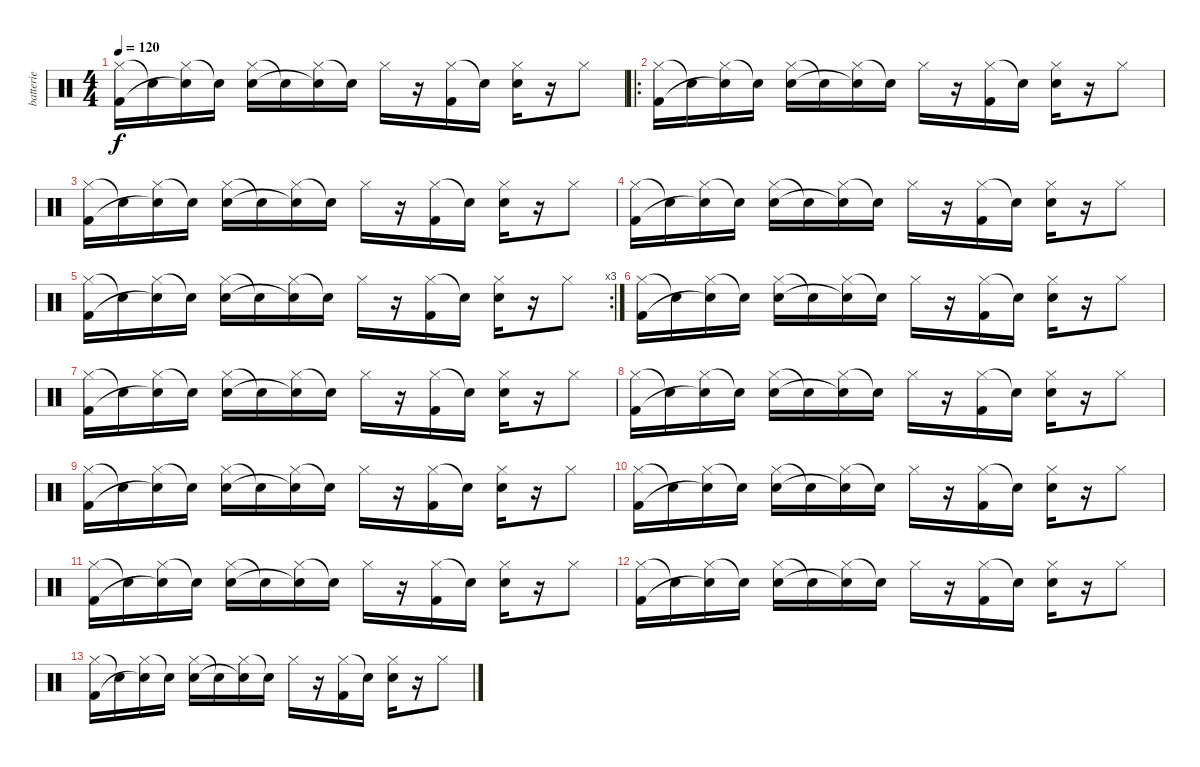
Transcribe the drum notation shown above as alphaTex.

\track ("batterie" "batterie") {instrument percussion}
\staff {score}
\articulation defaults
\ts (4 4)
\tempo 120
\clef neutral
\ks c
("Hi-Hat (closed)" "Kick (hit) 2").16{dy f} "Snare (hit)"{t}.16 ("Hi-Hat (closed)" "Snare (hit)"{t}).16 "Snare (hit)"{t}.16 ("Hi-Hat (closed)" "Snare (hit) 2").16 "Snare (hit)"{t}.16 ("Hi-Hat (closed)" "Snare (hit)"{t}).16 "Snare (hit)"{t}.16 "Hi-Hat (closed)".16 r.16 ("Hi-Hat (closed)" "Kick (hit) 2").16 "Snare (hit)"{t}.16 ("Hi-Hat (closed)" "Snare (hit) 2").16 r.16 "Hi-Hat (closed)".8 |
\ro
("Hi-Hat (closed)" "Kick (hit) 2").16 "Snare (hit)"{t}.16 ("Hi-Hat (closed)" "Snare (hit)"{t}).16 "Snare (hit)"{t}.16 ("Hi-Hat (closed)" "Snare (hit) 2").16 "Snare (hit)"{t}.16 ("Hi-Hat (closed)" "Snare (hit)"{t}).16 "Snare (hit)"{t}.16 "Hi-Hat (closed)".16 r.16 ("Hi-Hat (closed)" "Kick (hit) 2").16 "Snare (hit)"{t}.16 ("Hi-Hat (closed)" "Snare (hit) 2").16 r.16 "Hi-Hat (closed)".8 |
("Hi-Hat (closed)" "Kick (hit) 2").16 "Snare (hit)"{t}.16 ("Hi-Hat (closed)" "Snare (hit)"{t}).16 "Snare (hit)"{t}.16 ("Hi-Hat (closed)" "Snare (hit) 2").16 "Snare (hit)"{t}.16 ("Hi-Hat (closed)" "Snare (hit)"{t}).16 "Snare (hit)"{t}.16 "Hi-Hat (closed)".16 r.16 ("Hi-Hat (closed)" "Kick (hit) 2").16 "Snare (hit)"{t}.16 ("Hi-Hat (closed)" "Snare (hit) 2").16 r.16 "Hi-Hat (closed)".8 |
("Hi-Hat (closed)" "Kick (hit) 2").16 "Snare (hit)"{t}.16 ("Hi-Hat (closed)" "Snare (hit)"{t}).16 "Snare (hit)"{t}.16 ("Hi-Hat (closed)" "Snare (hit) 2").16 "Snare (hit)"{t}.16 ("Hi-Hat (closed)" "Snare (hit)"{t}).16 "Snare (hit)"{t}.16 "Hi-Hat (closed)".16 r.16 ("Hi-Hat (closed)" "Kick (hit) 2").16 "Snare (hit)"{t}.16 ("Hi-Hat (closed)" "Snare (hit) 2").16 r.16 "Hi-Hat (closed)".8 |
\rc 3
("Hi-Hat (closed)" "Kick (hit) 2").16 "Snare (hit)"{t}.16 ("Hi-Hat (closed)" "Snare (hit)"{t}).16 "Snare (hit)"{t}.16 ("Hi-Hat (closed)" "Snare (hit) 2").16 "Snare (hit)"{t}.16 ("Hi-Hat (closed)" "Snare (hit)"{t}).16 "Snare (hit)"{t}.16 "Hi-Hat (closed)".16 r.16 ("Hi-Hat (closed)" "Kick (hit) 2").16 "Snare (hit)"{t}.16 ("Hi-Hat (closed)" "Snare (hit) 2").16 r.16 "Hi-Hat (closed)".8 |
("Hi-Hat (closed)" "Kick (hit) 2").16 "Snare (hit)"{t}.16 ("Hi-Hat (closed)" "Snare (hit)"{t}).16 "Snare (hit)"{t}.16 ("Hi-Hat (closed)" "Snare (hit) 2").16 "Snare (hit)"{t}.16 ("Hi-Hat (closed)" "Snare (hit)"{t}).16 "Snare (hit)"{t}.16 "Hi-Hat (closed)".16 r.16 ("Hi-Hat (closed)" "Kick (hit) 2").16 "Snare (hit)"{t}.16 ("Hi-Hat (closed)" "Snare (hit) 2").16 r.16 "Hi-Hat (closed)".8 |
("Hi-Hat (closed)" "Kick (hit) 2").16 "Snare (hit)"{t}.16 ("Hi-Hat (closed)" "Snare (hit)"{t}).16 "Snare (hit)"{t}.16 ("Hi-Hat (closed)" "Snare (hit) 2").16 "Snare (hit)"{t}.16 ("Hi-Hat (closed)" "Snare (hit)"{t}).16 "Snare (hit)"{t}.16 "Hi-Hat (closed)".16 r.16 ("Hi-Hat (closed)" "Kick (hit) 2").16 "Snare (hit)"{t}.16 ("Hi-Hat (closed)" "Snare (hit) 2").16 r.16 "Hi-Hat (closed)".8 |
("Hi-Hat (closed)" "Kick (hit) 2").16 "Snare (hit)"{t}.16 ("Hi-Hat (closed)" "Snare (hit)"{t}).16 "Snare (hit)"{t}.16 ("Hi-Hat (closed)" "Snare (hit) 2").16 "Snare (hit)"{t}.16 ("Hi-Hat (closed)" "Snare (hit)"{t}).16 "Snare (hit)"{t}.16 "Hi-Hat (closed)".16 r.16 ("Hi-Hat (closed)" "Kick (hit) 2").16 "Snare (hit)"{t}.16 ("Hi-Hat (closed)" "Snare (hit) 2").16 r.16 "Hi-Hat (closed)".8 |
("Hi-Hat (closed)" "Kick (hit) 2").16 "Snare (hit)"{t}.16 ("Hi-Hat (closed)" "Snare (hit)"{t}).16 "Snare (hit)"{t}.16 ("Hi-Hat (closed)" "Snare (hit) 2").16 "Snare (hit)"{t}.16 ("Hi-Hat (closed)" "Snare (hit)"{t}).16 "Snare (hit)"{t}.16 "Hi-Hat (closed)".16 r.16 ("Hi-Hat (closed)" "Kick (hit) 2").16 "Snare (hit)"{t}.16 ("Hi-Hat (closed)" "Snare (hit) 2").16 r.16 "Hi-Hat (closed)".8 |
("Hi-Hat (closed)" "Kick (hit) 2").16 "Snare (hit)"{t}.16 ("Hi-Hat (closed)" "Snare (hit)"{t}).16 "Snare (hit)"{t}.16 ("Hi-Hat (closed)" "Snare (hit) 2").16 "Snare (hit)"{t}.16 ("Hi-Hat (closed)" "Snare (hit)"{t}).16 "Snare (hit)"{t}.16 "Hi-Hat (closed)".16 r.16 ("Hi-Hat (closed)" "Kick (hit) 2").16 "Snare (hit)"{t}.16 ("Hi-Hat (closed)" "Snare (hit) 2").16 r.16 "Hi-Hat (closed)".8 |
("Hi-Hat (closed)" "Kick (hit) 2").16 "Snare (hit)"{t}.16 ("Hi-Hat (closed)" "Snare (hit)"{t}).16 "Snare (hit)"{t}.16 ("Hi-Hat (closed)" "Snare (hit) 2").16 "Snare (hit)"{t}.16 ("Hi-Hat (closed)" "Snare (hit)"{t}).16 "Snare (hit)"{t}.16 "Hi-Hat (closed)".16 r.16 ("Hi-Hat (closed)" "Kick (hit) 2").16 "Snare (hit)"{t}.16 ("Hi-Hat (closed)" "Snare (hit) 2").16 r.16 "Hi-Hat (closed)".8 |
("Hi-Hat (closed)" "Kick (hit) 2").16 "Snare (hit)"{t}.16 ("Hi-Hat (closed)" "Snare (hit)"{t}).16 "Snare (hit)"{t}.16 ("Hi-Hat (closed)" "Snare (hit) 2").16 "Snare (hit)"{t}.16 ("Hi-Hat (closed)" "Snare (hit)"{t}).16 "Snare (hit)"{t}.16 "Hi-Hat (closed)".16 r.16 ("Hi-Hat (closed)" "Kick (hit) 2").16 "Snare (hit)"{t}.16 ("Hi-Hat (closed)" "Snare (hit) 2").16 r.16 "Hi-Hat (closed)".8 |
("Hi-Hat (closed)" "Kick (hit) 2").16 "Snare (hit)"{t}.16 ("Hi-Hat (closed)" "Snare (hit)"{t}).16 "Snare (hit)"{t}.16 ("Hi-Hat (closed)" "Snare (hit) 2").16 "Snare (hit)"{t}.16 ("Hi-Hat (closed)" "Snare (hit)"{t}).16 "Snare (hit)"{t}.16 "Hi-Hat (closed)".16 r.16 ("Hi-Hat (closed)" "Kick (hit) 2").16 "Snare (hit)"{t}.16 ("Hi-Hat (closed)" "Snare (hit) 2").16 r.16 "Hi-Hat (closed)".8
